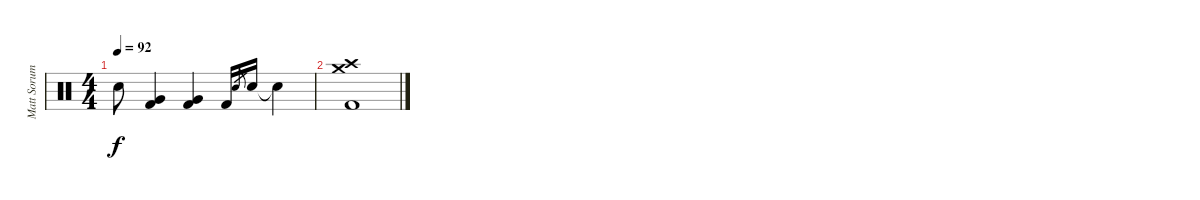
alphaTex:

\track ("Matt Sorum" "Matt Sorum") {instrument percussion}
\staff {score}
\articulation defaults
\ts (4 4)
\tempo 92
\clef neutral
\ks c "Snare (hit)"{t}.8{dy f}
("Very Low Tom (hit)" "Kick (hit) 2").4 ("Very Low Tom (hit)" "Kick (hit) 2").4 "Kick (hit) 2".16 "Electric Snare (hit)".8{gr} "Electric Snare (hit)".16 "Snare (hit)"{t}.4 |
("Crash medium (hit)" "Crash high (hit)" "Kick (hit) 2").1
